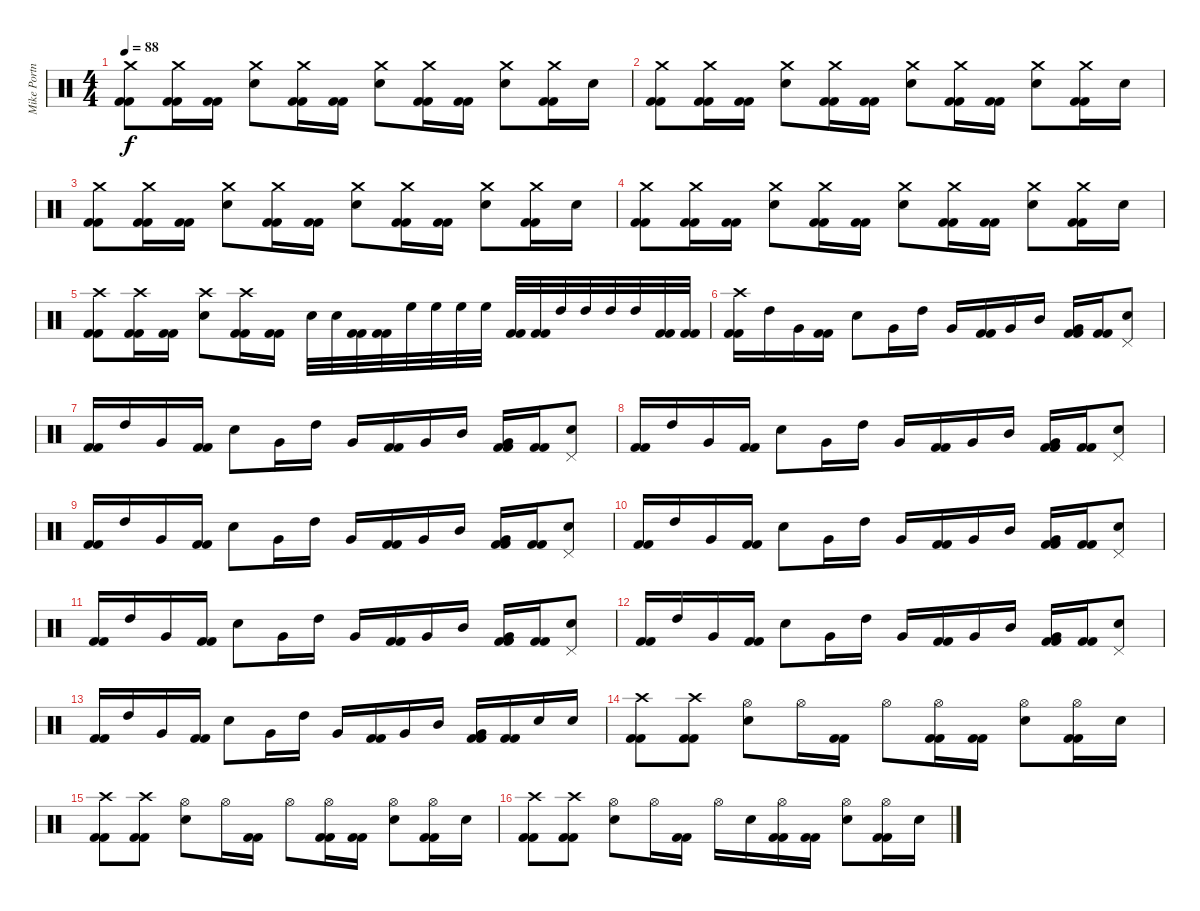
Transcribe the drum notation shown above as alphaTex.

\track ("Mike Portnoy" "Mike Portn") {instrument percussion}
\staff {score}
\articulation defaults
\ts (4 4)
\tempo 88
\clef neutral
\ks c
("Crash medium (hit)" "Kick (hit) 2" "Kick (hit) 2").8{dy f} ("Crash medium (hit)" "Kick (hit) 2" "Kick (hit) 2").16 ("Kick (hit) 2" "Kick (hit) 2").16 ("Crash medium (hit)" "Snare (hit) 2").8 ("Crash medium (hit)" "Kick (hit) 2" "Kick (hit) 2").16 ("Kick (hit) 2" "Kick (hit) 2").16 ("Crash medium (hit)" "Snare (hit) 2").8 ("Crash medium (hit)" "Kick (hit) 2" "Kick (hit) 2").16 ("Kick (hit) 2" "Kick (hit) 2").16 ("Crash medium (hit)" "Snare (hit) 2").8 ("Crash medium (hit)" "Kick (hit) 2" "Kick (hit) 2").16 "Snare (hit) 2".16 |
("Crash medium (hit)" "Kick (hit) 2" "Kick (hit) 2").8 ("Crash medium (hit)" "Kick (hit) 2" "Kick (hit) 2").16 ("Kick (hit) 2" "Kick (hit) 2").16 ("Crash medium (hit)" "Snare (hit) 2").8 ("Crash medium (hit)" "Kick (hit) 2" "Kick (hit) 2").16 ("Kick (hit) 2" "Kick (hit) 2").16 ("Crash medium (hit)" "Snare (hit) 2").8 ("Crash medium (hit)" "Kick (hit) 2" "Kick (hit) 2").16 ("Kick (hit) 2" "Kick (hit) 2").16 ("Crash medium (hit)" "Snare (hit) 2").8 ("Crash medium (hit)" "Kick (hit) 2" "Kick (hit) 2").16 "Snare (hit) 2".16 |
("Crash medium (hit)" "Kick (hit) 2" "Kick (hit) 2").8 ("Crash medium (hit)" "Kick (hit) 2" "Kick (hit) 2").16 ("Kick (hit) 2" "Kick (hit) 2").16 ("Crash medium (hit)" "Snare (hit) 2").8 ("Crash medium (hit)" "Kick (hit) 2" "Kick (hit) 2").16 ("Kick (hit) 2" "Kick (hit) 2").16 ("Crash medium (hit)" "Snare (hit) 2").8 ("Crash medium (hit)" "Kick (hit) 2" "Kick (hit) 2").16 ("Kick (hit) 2" "Kick (hit) 2").16 ("Crash medium (hit)" "Snare (hit) 2").8 ("Crash medium (hit)" "Kick (hit) 2" "Kick (hit) 2").16 "Snare (hit) 2".16 |
("Crash medium (hit)" "Kick (hit) 2" "Kick (hit) 2").8 ("Crash medium (hit)" "Kick (hit) 2" "Kick (hit) 2").16 ("Kick (hit) 2" "Kick (hit) 2").16 ("Crash medium (hit)" "Snare (hit) 2").8 ("Crash medium (hit)" "Kick (hit) 2" "Kick (hit) 2").16 ("Kick (hit) 2" "Kick (hit) 2").16 ("Crash medium (hit)" "Snare (hit) 2").8 ("Crash medium (hit)" "Kick (hit) 2" "Kick (hit) 2").16 ("Kick (hit) 2" "Kick (hit) 2").16 ("Crash medium (hit)" "Snare (hit) 2").8 ("Crash medium (hit)" "Kick (hit) 2" "Kick (hit) 2").16 "Snare (hit) 2".16 |
("Crash high (hit)" "Kick (hit) 2" "Kick (hit) 2").8 ("Crash high (hit)" "Kick (hit) 2" "Kick (hit) 2").16 ("Kick (hit) 2" "Kick (hit) 2").16 ("Crash high (hit)" "Snare (hit) 2").8 ("Crash high (hit)" "Kick (hit) 2" "Kick (hit) 2").16 ("Kick (hit) 2" "Kick (hit) 2").16 "Snare (hit) 2".32 "Snare (hit) 2".32 ("Kick (hit) 2" "Kick (hit) 2").32 ("Kick (hit) 2" "Kick (hit) 2").32 "High Floor Tom (hit)".32 "High Floor Tom (hit)".32 "High Floor Tom (hit)".32 "High Floor Tom (hit)".32 ("Kick (hit) 2" "Kick (hit) 2").32 ("Kick (hit) 2" "Kick (hit) 2").32 "High Tom (hit)".32 "High Tom (hit)".32 "High Tom (hit)".32 "High Tom (hit)".32 ("Kick (hit) 2" "Kick (hit) 2").32 ("Kick (hit) 2" "Kick (hit) 2").32 |
("Crash high (hit)" "Kick (hit) 2" "Kick (hit) 2").16{volume 10} "High Tom (hit)".16 "Very Low Tom (hit)".16 ("Kick (hit) 2" "Kick (hit) 2").16 "Snare (hit) 2".8 "Very Low Tom (hit)".16 "High Tom (hit)".16 "Very Low Tom (hit)".16 ("Kick (hit) 2" "Kick (hit) 2").16 "Very Low Tom (hit)".16 "Mid Tom (hit)".16 ("Very Low Tom (hit)" "Kick (hit) 2" "Kick (hit) 2").16 ("Kick (hit) 2" "Kick (hit) 2").16 ("Pedal Hi-Hat (hit)" "Snare (hit) 2").8 |
("Kick (hit) 2" "Kick (hit) 2").16 "High Tom (hit)".16 "Very Low Tom (hit)".16 ("Kick (hit) 2" "Kick (hit) 2").16 "Snare (hit) 2".8 "Very Low Tom (hit)".16 "High Tom (hit)".16 "Very Low Tom (hit)".16 ("Kick (hit) 2" "Kick (hit) 2").16 "Very Low Tom (hit)".16 "Mid Tom (hit)".16 ("Very Low Tom (hit)" "Kick (hit) 2" "Kick (hit) 2").16 ("Kick (hit) 2" "Kick (hit) 2").16 ("Pedal Hi-Hat (hit)" "Snare (hit) 2").8 |
("Kick (hit) 2" "Kick (hit) 2").16 "High Tom (hit)".16 "Very Low Tom (hit)".16 ("Kick (hit) 2" "Kick (hit) 2").16 "Snare (hit) 2".8 "Very Low Tom (hit)".16 "High Tom (hit)".16 "Very Low Tom (hit)".16 ("Kick (hit) 2" "Kick (hit) 2").16 "Very Low Tom (hit)".16 "Mid Tom (hit)".16 ("Very Low Tom (hit)" "Kick (hit) 2" "Kick (hit) 2").16 ("Kick (hit) 2" "Kick (hit) 2").16 ("Pedal Hi-Hat (hit)" "Snare (hit) 2").8 |
("Kick (hit) 2" "Kick (hit) 2").16 "High Tom (hit)".16 "Very Low Tom (hit)".16 ("Kick (hit) 2" "Kick (hit) 2").16 "Snare (hit) 2".8 "Very Low Tom (hit)".16 "High Tom (hit)".16 "Very Low Tom (hit)".16 ("Kick (hit) 2" "Kick (hit) 2").16 "Very Low Tom (hit)".16 "Mid Tom (hit)".16 ("Very Low Tom (hit)" "Kick (hit) 2" "Kick (hit) 2").16 ("Kick (hit) 2" "Kick (hit) 2").16 ("Pedal Hi-Hat (hit)" "Snare (hit) 2").8 |
("Kick (hit) 2" "Kick (hit) 2").16 "High Tom (hit)".16 "Very Low Tom (hit)".16 ("Kick (hit) 2" "Kick (hit) 2").16 "Snare (hit) 2".8 "Very Low Tom (hit)".16 "High Tom (hit)".16 "Very Low Tom (hit)".16 ("Kick (hit) 2" "Kick (hit) 2").16 "Very Low Tom (hit)".16 "Mid Tom (hit)".16 ("Very Low Tom (hit)" "Kick (hit) 2" "Kick (hit) 2").16 ("Kick (hit) 2" "Kick (hit) 2").16 ("Pedal Hi-Hat (hit)" "Snare (hit) 2").8 |
("Kick (hit) 2" "Kick (hit) 2").16 "High Tom (hit)".16 "Very Low Tom (hit)".16 ("Kick (hit) 2" "Kick (hit) 2").16 "Snare (hit) 2".8 "Very Low Tom (hit)".16 "High Tom (hit)".16 "Very Low Tom (hit)".16 ("Kick (hit) 2" "Kick (hit) 2").16 "Very Low Tom (hit)".16 "Mid Tom (hit)".16 ("Very Low Tom (hit)" "Kick (hit) 2" "Kick (hit) 2").16 ("Kick (hit) 2" "Kick (hit) 2").16 ("Pedal Hi-Hat (hit)" "Snare (hit) 2").8 |
("Kick (hit) 2" "Kick (hit) 2").16 "High Tom (hit)".16 "Very Low Tom (hit)".16 ("Kick (hit) 2" "Kick (hit) 2").16 "Snare (hit) 2".8 "Very Low Tom (hit)".16 "High Tom (hit)".16 "Very Low Tom (hit)".16 ("Kick (hit) 2" "Kick (hit) 2").16 "Very Low Tom (hit)".16 "Mid Tom (hit)".16 ("Very Low Tom (hit)" "Kick (hit) 2" "Kick (hit) 2").16 ("Kick (hit) 2" "Kick (hit) 2").16 ("Pedal Hi-Hat (hit)" "Snare (hit) 2").8 |
("Kick (hit) 2" "Kick (hit) 2").16 "High Tom (hit)".16 "Very Low Tom (hit)".16 ("Kick (hit) 2" "Kick (hit) 2").16 "Snare (hit) 2".8 "Very Low Tom (hit)".16 "High Tom (hit)".16 "Very Low Tom (hit)".16 ("Kick (hit) 2" "Kick (hit) 2").16 "Very Low Tom (hit)".16 "Mid Tom (hit)".16 ("Very Low Tom (hit)" "Kick (hit) 2" "Kick (hit) 2").16 ("Kick (hit) 2" "Kick (hit) 2").16 "Snare (hit) 2".16 "Snare (hit) 2".16 |
("Crash high (hit)" "Kick (hit) 2" "Kick (hit) 2").8{volume 13} ("Crash high (hit)" "Kick (hit) 2" "Kick (hit) 2").8 ("Hi-Hat (open)" "Snare (hit) 2").8 "Hi-Hat (open)".16 ("Kick (hit) 2" "Kick (hit) 2").16 "Hi-Hat (open)".8 ("Hi-Hat (open)" "Kick (hit) 2" "Kick (hit) 2").16 ("Kick (hit) 2" "Kick (hit) 2").16 ("Hi-Hat (open)" "Snare (hit) 2").8 ("Hi-Hat (open)" "Kick (hit) 2" "Kick (hit) 2").16 "Snare (hit) 2".16 |
("Crash high (hit)" "Kick (hit) 2" "Kick (hit) 2").8 ("Crash high (hit)" "Kick (hit) 2" "Kick (hit) 2").8 ("Hi-Hat (open)" "Snare (hit) 2").8 "Hi-Hat (open)".16 ("Kick (hit) 2" "Kick (hit) 2").16 "Hi-Hat (open)".8 ("Hi-Hat (open)" "Kick (hit) 2" "Kick (hit) 2").16 ("Kick (hit) 2" "Kick (hit) 2").16 ("Hi-Hat (open)" "Snare (hit) 2").8 ("Hi-Hat (open)" "Kick (hit) 2" "Kick (hit) 2").16 "Snare (hit) 2".16 |
("Crash high (hit)" "Kick (hit) 2" "Kick (hit) 2").8 ("Crash high (hit)" "Kick (hit) 2" "Kick (hit) 2").8 ("Hi-Hat (open)" "Snare (hit) 2").8 "Hi-Hat (open)".16 ("Kick (hit) 2" "Kick (hit) 2").16 "Hi-Hat (open)".16 "Snare (hit) 2".16 ("Hi-Hat (open)" "Kick (hit) 2" "Kick (hit) 2").16 ("Kick (hit) 2" "Kick (hit) 2").16 ("Hi-Hat (open)" "Snare (hit) 2").8 ("Hi-Hat (open)" "Kick (hit) 2" "Kick (hit) 2").16 "Snare (hit) 2".16
